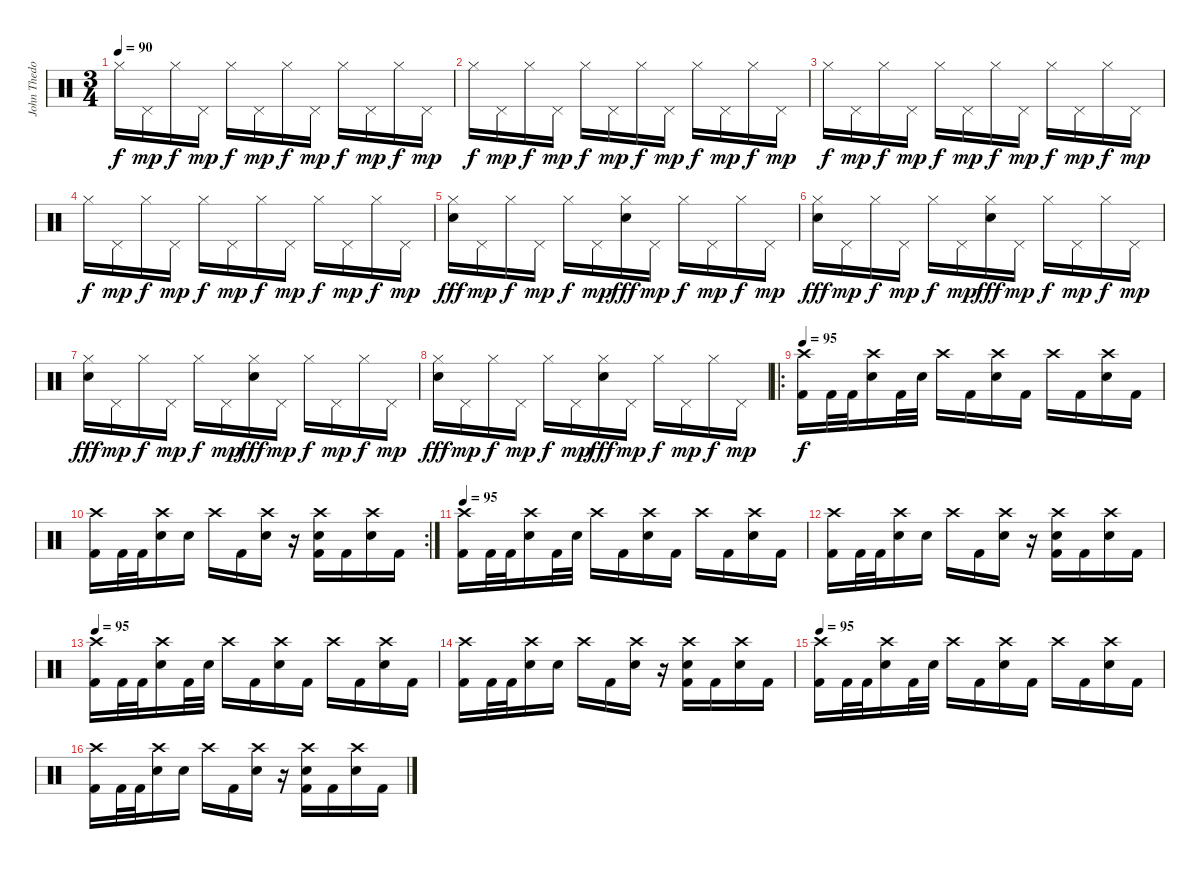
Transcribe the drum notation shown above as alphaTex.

\track ("John Thedore" "John Thedo") {instrument percussion}
\staff {score}
\articulation defaults
\ts (3 4)
\tempo 90
\clef neutral
\ks c "Hi-Hat (closed)".16{dy f} "Pedal Hi-Hat (hit)".16{dy mp} "Hi-Hat (closed)".16{dy f} "Pedal Hi-Hat (hit)".16{dy mp} "Hi-Hat (closed)".16{dy f} "Pedal Hi-Hat (hit)".16{dy mp} "Hi-Hat (closed)".16{dy f} "Pedal Hi-Hat (hit)".16{dy mp} "Hi-Hat (closed)".16{dy f} "Pedal Hi-Hat (hit)".16{dy mp} "Hi-Hat (closed)".16{dy f} "Pedal Hi-Hat (hit)".16{dy mp}
|
"Hi-Hat (closed)".16{dy f} "Pedal Hi-Hat (hit)".16{dy mp} "Hi-Hat (closed)".16{dy f} "Pedal Hi-Hat (hit)".16{dy mp} "Hi-Hat (closed)".16{dy f} "Pedal Hi-Hat (hit)".16{dy mp} "Hi-Hat (closed)".16{dy f} "Pedal Hi-Hat (hit)".16{dy mp} "Hi-Hat (closed)".16{dy f} "Pedal Hi-Hat (hit)".16{dy mp} "Hi-Hat (closed)".16{dy f} "Pedal Hi-Hat (hit)".16{dy mp} |
"Hi-Hat (closed)".16{dy f} "Pedal Hi-Hat (hit)".16{dy mp} "Hi-Hat (closed)".16{dy f} "Pedal Hi-Hat (hit)".16{dy mp} "Hi-Hat (closed)".16{dy f} "Pedal Hi-Hat (hit)".16{dy mp} "Hi-Hat (closed)".16{dy f} "Pedal Hi-Hat (hit)".16{dy mp} "Hi-Hat (closed)".16{dy f} "Pedal Hi-Hat (hit)".16{dy mp} "Hi-Hat (closed)".16{dy f} "Pedal Hi-Hat (hit)".16{dy mp} |
"Hi-Hat (closed)".16{dy f} "Pedal Hi-Hat (hit)".16{dy mp} "Hi-Hat (closed)".16{dy f} "Pedal Hi-Hat (hit)".16{dy mp} "Hi-Hat (closed)".16{dy f} "Pedal Hi-Hat (hit)".16{dy mp} "Hi-Hat (closed)".16{dy f} "Pedal Hi-Hat (hit)".16{dy mp} "Hi-Hat (closed)".16{dy f} "Pedal Hi-Hat (hit)".16{dy mp} "Hi-Hat (closed)".16{dy f} "Pedal Hi-Hat (hit)".16{dy mp} |
("Hi-Hat (closed)" "Electric Snare (hit)").16{dy fff} "Pedal Hi-Hat (hit)".16{dy mp} "Hi-Hat (closed)".16{dy f} "Pedal Hi-Hat (hit)".16{dy mp} "Hi-Hat (closed)".16{dy f} "Pedal Hi-Hat (hit)".16{dy mp} ("Hi-Hat (closed)" "Electric Snare (hit)").16{dy fff} "Pedal Hi-Hat (hit)".16{dy mp} "Hi-Hat (closed)".16{dy f} "Pedal Hi-Hat (hit)".16{dy mp} "Hi-Hat (closed)".16{dy f} "Pedal Hi-Hat (hit)".16{dy mp} |
("Hi-Hat (closed)" "Electric Snare (hit)").16{dy fff} "Pedal Hi-Hat (hit)".16{dy mp} "Hi-Hat (closed)".16{dy f} "Pedal Hi-Hat (hit)".16{dy mp} "Hi-Hat (closed)".16{dy f} "Pedal Hi-Hat (hit)".16{dy mp} ("Hi-Hat (closed)" "Electric Snare (hit)").16{dy fff} "Pedal Hi-Hat (hit)".16{dy mp} "Hi-Hat (closed)".16{dy f} "Pedal Hi-Hat (hit)".16{dy mp} "Hi-Hat (closed)".16{dy f} "Pedal Hi-Hat (hit)".16{dy mp} |
("Hi-Hat (closed)" "Electric Snare (hit)").16{dy fff} "Pedal Hi-Hat (hit)".16{dy mp} "Hi-Hat (closed)".16{dy f} "Pedal Hi-Hat (hit)".16{dy mp} "Hi-Hat (closed)".16{dy f} "Pedal Hi-Hat (hit)".16{dy mp} ("Hi-Hat (closed)" "Electric Snare (hit)").16{dy fff} "Pedal Hi-Hat (hit)".16{dy mp} "Hi-Hat (closed)".16{dy f} "Pedal Hi-Hat (hit)".16{dy mp} "Hi-Hat (closed)".16{dy f} "Pedal Hi-Hat (hit)".16{dy mp} |
("Hi-Hat (closed)" "Electric Snare (hit)").16{dy fff} "Pedal Hi-Hat (hit)".16{dy mp} "Hi-Hat (closed)".16{dy f} "Pedal Hi-Hat (hit)".16{dy mp} "Hi-Hat (closed)".16{dy f} "Pedal Hi-Hat (hit)".16{dy mp} ("Hi-Hat (closed)" "Electric Snare (hit)").16{dy fff} "Pedal Hi-Hat (hit)".16{dy mp} "Hi-Hat (closed)".16{dy f} "Pedal Hi-Hat (hit)".16{dy mp} "Hi-Hat (closed)".16{dy f} "Pedal Hi-Hat (hit)".16{dy mp} |
\ro
\tempo 95
("Crash high (hit)" "Kick (hit) 2").16{dy f} "Kick (hit) 2".32 "Kick (hit) 2".32 ("Crash high (hit)" "Electric Snare (hit)").16 "Kick (hit) 2".32 "Electric Snare (hit)".32 "Crash high (hit)".16 "Kick (hit) 2".16 ("Crash high (hit)" "Electric Snare (hit)").16 "Kick (hit) 2".16 "Crash high (hit)".16 "Kick (hit) 2".16 ("Crash high (hit)" "Electric Snare (hit)").16 "Kick (hit) 2".16 |
\rc 2
("Crash high (hit)" "Kick (hit) 2").16 "Kick (hit) 2".32 "Kick (hit) 2".32 ("Crash high (hit)" "Electric Snare (hit)").16 "Electric Snare (hit)".16 "Crash high (hit)".16 "Kick (hit) 2".16 ("Crash high (hit)" "Electric Snare (hit)").16 r.16 ("Crash high (hit)" "Electric Snare (hit)" "Kick (hit) 2").16 "Kick (hit) 2".16 ("Crash high (hit)" "Electric Snare (hit)").16 "Kick (hit) 2".16 |
\tempo 95
("Crash high (hit)" "Kick (hit) 2").16 "Kick (hit) 2".32 "Kick (hit) 2".32 ("Crash high (hit)" "Electric Snare (hit)").16 "Kick (hit) 2".32 "Electric Snare (hit)".32 "Crash high (hit)".16 "Kick (hit) 2".16 ("Crash high (hit)" "Electric Snare (hit)").16 "Kick (hit) 2".16 "Crash high (hit)".16 "Kick (hit) 2".16 ("Crash high (hit)" "Electric Snare (hit)").16 "Kick (hit) 2".16 |
("Crash high (hit)" "Kick (hit) 2").16 "Kick (hit) 2".32 "Kick (hit) 2".32 ("Crash high (hit)" "Electric Snare (hit)").16 "Electric Snare (hit)".16 "Crash high (hit)".16 "Kick (hit) 2".16 ("Crash high (hit)" "Electric Snare (hit)").16 r.16 ("Crash high (hit)" "Electric Snare (hit)" "Kick (hit) 2").16 "Kick (hit) 2".16 ("Crash high (hit)" "Electric Snare (hit)").16 "Kick (hit) 2".16 |
\tempo 95
("Crash high (hit)" "Kick (hit) 2").16 "Kick (hit) 2".32 "Kick (hit) 2".32 ("Crash high (hit)" "Electric Snare (hit)").16 "Kick (hit) 2".32 "Electric Snare (hit)".32 "Crash high (hit)".16 "Kick (hit) 2".16 ("Crash high (hit)" "Electric Snare (hit)").16 "Kick (hit) 2".16 "Crash high (hit)".16 "Kick (hit) 2".16 ("Crash high (hit)" "Electric Snare (hit)").16 "Kick (hit) 2".16 |
("Crash high (hit)" "Kick (hit) 2").16 "Kick (hit) 2".32 "Kick (hit) 2".32 ("Crash high (hit)" "Electric Snare (hit)").16 "Electric Snare (hit)".16 "Crash high (hit)".16 "Kick (hit) 2".16 ("Crash high (hit)" "Electric Snare (hit)").16 r.16 ("Crash high (hit)" "Electric Snare (hit)" "Kick (hit) 2").16 "Kick (hit) 2".16 ("Crash high (hit)" "Electric Snare (hit)").16 "Kick (hit) 2".16 |
\tempo 95
("Crash high (hit)" "Kick (hit) 2").16 "Kick (hit) 2".32 "Kick (hit) 2".32 ("Crash high (hit)" "Electric Snare (hit)").16 "Kick (hit) 2".32 "Electric Snare (hit)".32 "Crash high (hit)".16 "Kick (hit) 2".16 ("Crash high (hit)" "Electric Snare (hit)").16 "Kick (hit) 2".16 "Crash high (hit)".16 "Kick (hit) 2".16 ("Crash high (hit)" "Electric Snare (hit)").16 "Kick (hit) 2".16 |
("Crash high (hit)" "Kick (hit) 2").16 "Kick (hit) 2".32 "Kick (hit) 2".32 ("Crash high (hit)" "Electric Snare (hit)").16 "Electric Snare (hit)".16 "Crash high (hit)".16 "Kick (hit) 2".16 ("Crash high (hit)" "Electric Snare (hit)").16 r.16 ("Crash high (hit)" "Electric Snare (hit)" "Kick (hit) 2").16 "Kick (hit) 2".16 ("Crash high (hit)" "Electric Snare (hit)").16 "Kick (hit) 2".16
